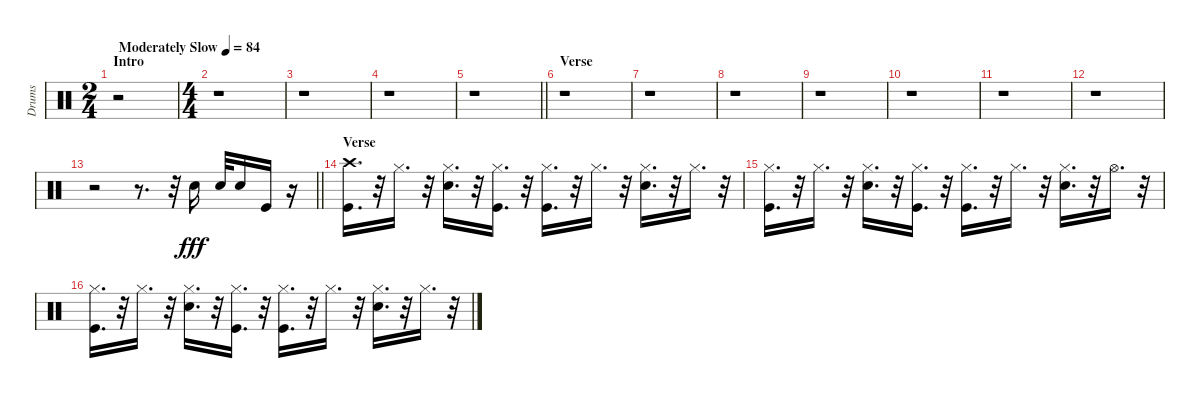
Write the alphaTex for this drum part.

\track ("Drums" "Drums") {instrument percussion}
\staff {score}
\articulation defaults
\ts (2 4)
\section ("" "Intro")
\tempo (84 "Moderately Slow")
\clef neutral
\ks c
r.2{dy fff} |
\ts (4 4)
r.1 |
r.1 |
r.1 |
\barLineRight lightlight
r.1 |
\section ("" "Verse")
r.1 |
r.1 |
r.1 |
r.1 |
r.1 |
r.1 |
r.1 |
\barLineRight lightlight
r.2 r.8{d} r.32 "Snare (hit) 2".16 "Snare (hit) 2".32 "Snare (hit) 2".16 "Kick (hit)".16 r.16 |
\section ("" "Verse")
("Crash high (hit)" "Kick (hit)").16{d} r.32 "Hi-Hat (closed)".16{d} r.32 ("Hi-Hat (closed)" "Snare (hit) 2").16{d} r.32 ("Hi-Hat (closed)" "Kick (hit)").16{d} r.32 ("Hi-Hat (closed)" "Kick (hit)").16{d} r.32 "Hi-Hat (closed)".16{d} r.32 ("Hi-Hat (closed)" "Snare (hit) 2").16{d} r.32 "Hi-Hat (closed)".16{d} r.32 |
("Hi-Hat (closed)" "Kick (hit)").16{d} r.32 "Hi-Hat (closed)".16{d} r.32 ("Hi-Hat (closed)" "Snare (hit) 2").16{d} r.32 ("Hi-Hat (closed)" "Kick (hit)").16{d} r.32 ("Hi-Hat (closed)" "Kick (hit)").16{d} r.32 "Hi-Hat (closed)".16{d} r.32 ("Hi-Hat (closed)" "Snare (hit) 2").16{d} r.32 "Hi-Hat (open)".16{d} r.32 |
("Hi-Hat (closed)" "Kick (hit)").16{d} r.32 "Hi-Hat (closed)".16{d} r.32 ("Hi-Hat (closed)" "Snare (hit) 2").16{d} r.32 ("Hi-Hat (closed)" "Kick (hit)").16{d} r.32 ("Hi-Hat (closed)" "Kick (hit)").16{d} r.32 "Hi-Hat (closed)".16{d} r.32 ("Hi-Hat (closed)" "Snare (hit) 2").16{d} r.32 "Hi-Hat (closed)".16{d} r.32
